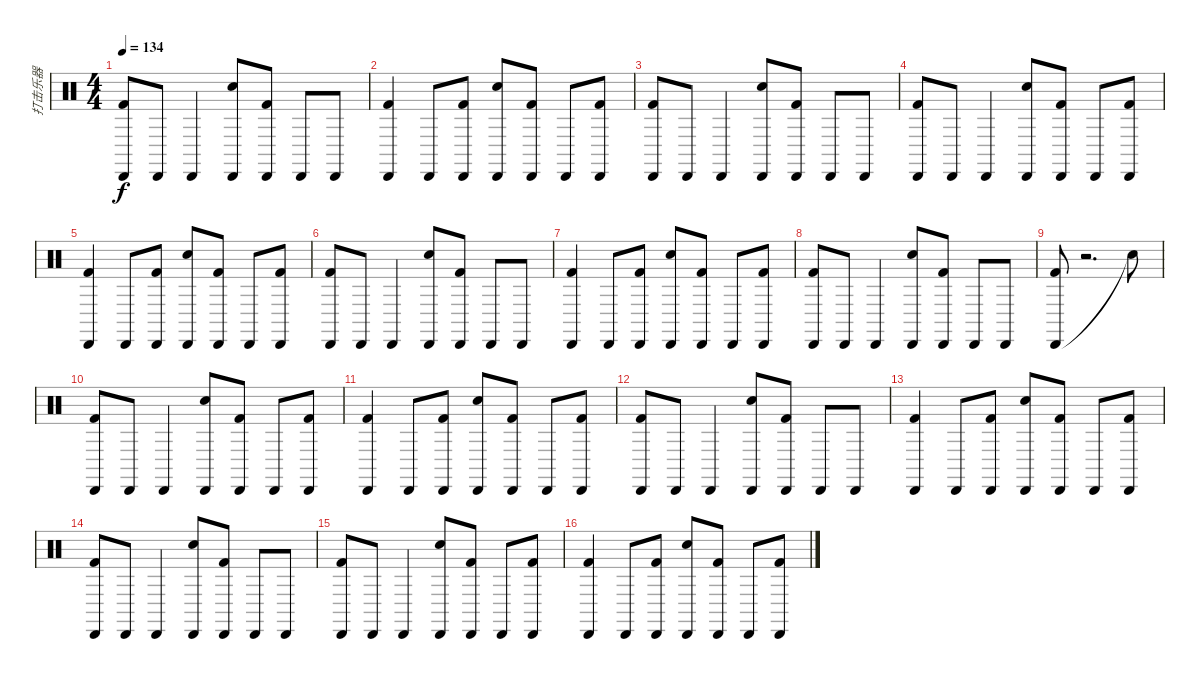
\track ("打击乐器" "打击乐器") {instrument percussion}
\staff {score}
\articulation defaults
\ts (4 4)
\tempo 134
\clef neutral
\ks c
("Cabasa (hit)" "Kick (hit) 2").8{dy f} "Cabasa (hit)".8 "Cabasa (hit)".4 ("Snare (hit) 2" "Cabasa (hit)").8 ("Cabasa (hit)" "Kick (hit) 2").8 "Cabasa (hit)".8 "Cabasa (hit)".8 |
("Cabasa (hit)" "Kick (hit) 2").4 "Cabasa (hit)".8 ("Cabasa (hit)" "Kick (hit) 2").8 ("Snare (hit) 2" "Cabasa (hit)").8 ("Cabasa (hit)" "Kick (hit) 2").8 "Cabasa (hit)".8 ("Cabasa (hit)" "Kick (hit) 2").8 |
("Cabasa (hit)" "Kick (hit) 2").8 "Cabasa (hit)".8 "Cabasa (hit)".4 ("Snare (hit) 2" "Cabasa (hit)").8 ("Cabasa (hit)" "Kick (hit) 2").8 "Cabasa (hit)".8 "Cabasa (hit)".8 |
("Cabasa (hit)" "Kick (hit) 2").8 "Cabasa (hit)".8 "Cabasa (hit)".4 ("Snare (hit) 2" "Cabasa (hit)").8 ("Cabasa (hit)" "Kick (hit) 2").8 "Cabasa (hit)".8 ("Cabasa (hit)" "Kick (hit) 2").8 |
("Cabasa (hit)" "Kick (hit) 2").4 "Cabasa (hit)".8 ("Cabasa (hit)" "Kick (hit) 2").8 ("Snare (hit) 2" "Cabasa (hit)").8 ("Cabasa (hit)" "Kick (hit) 2").8 "Cabasa (hit)".8 ("Cabasa (hit)" "Kick (hit) 2").8 |
("Cabasa (hit)" "Kick (hit) 2").8 "Cabasa (hit)".8 "Cabasa (hit)".4 ("Snare (hit) 2" "Cabasa (hit)").8 ("Cabasa (hit)" "Kick (hit) 2").8 "Cabasa (hit)".8 "Cabasa (hit)".8 |
("Cabasa (hit)" "Kick (hit) 2").4 "Cabasa (hit)".8 ("Cabasa (hit)" "Kick (hit) 2").8 ("Snare (hit) 2" "Cabasa (hit)").8 ("Cabasa (hit)" "Kick (hit) 2").8 "Cabasa (hit)".8 ("Cabasa (hit)" "Kick (hit) 2").8 |
("Cabasa (hit)" "Kick (hit) 2").8 "Cabasa (hit)".8 "Cabasa (hit)".4 ("Snare (hit) 2" "Cabasa (hit)").8 ("Cabasa (hit)" "Kick (hit) 2").8 "Cabasa (hit)".8 "Cabasa (hit)".8 |
("Cabasa (hit)" "Kick (hit) 2").8 r.2{d} "Snare (hit)"{t}.8 |
("Cabasa (hit)" "Kick (hit) 2").8 "Cabasa (hit)".8 "Cabasa (hit)".4 ("Snare (hit) 2" "Cabasa (hit)").8 ("Cabasa (hit)" "Kick (hit) 2").8 "Cabasa (hit)".8 ("Cabasa (hit)" "Kick (hit) 2").8 |
("Cabasa (hit)" "Kick (hit) 2").4 "Cabasa (hit)".8 ("Cabasa (hit)" "Kick (hit) 2").8 ("Snare (hit) 2" "Cabasa (hit)").8 ("Cabasa (hit)" "Kick (hit) 2").8 "Cabasa (hit)".8 ("Cabasa (hit)" "Kick (hit) 2").8 |
("Cabasa (hit)" "Kick (hit) 2").8 "Cabasa (hit)".8 "Cabasa (hit)".4 ("Snare (hit) 2" "Cabasa (hit)").8 ("Cabasa (hit)" "Kick (hit) 2").8 "Cabasa (hit)".8 "Cabasa (hit)".8 |
("Cabasa (hit)" "Kick (hit) 2").4 "Cabasa (hit)".8 ("Cabasa (hit)" "Kick (hit) 2").8 ("Snare (hit) 2" "Cabasa (hit)").8 ("Cabasa (hit)" "Kick (hit) 2").8 "Cabasa (hit)".8 ("Cabasa (hit)" "Kick (hit) 2").8 |
("Cabasa (hit)" "Kick (hit) 2").8 "Cabasa (hit)".8 "Cabasa (hit)".4 ("Snare (hit) 2" "Cabasa (hit)").8 ("Cabasa (hit)" "Kick (hit) 2").8 "Cabasa (hit)".8 "Cabasa (hit)".8 |
("Cabasa (hit)" "Kick (hit) 2").8 "Cabasa (hit)".8 "Cabasa (hit)".4 ("Snare (hit) 2" "Cabasa (hit)").8 ("Cabasa (hit)" "Kick (hit) 2").8 "Cabasa (hit)".8 ("Cabasa (hit)" "Kick (hit) 2").8 |
("Cabasa (hit)" "Kick (hit) 2").4 "Cabasa (hit)".8 ("Cabasa (hit)" "Kick (hit) 2").8 ("Snare (hit) 2" "Cabasa (hit)").8 ("Cabasa (hit)" "Kick (hit) 2").8 "Cabasa (hit)".8 ("Cabasa (hit)" "Kick (hit) 2").8
